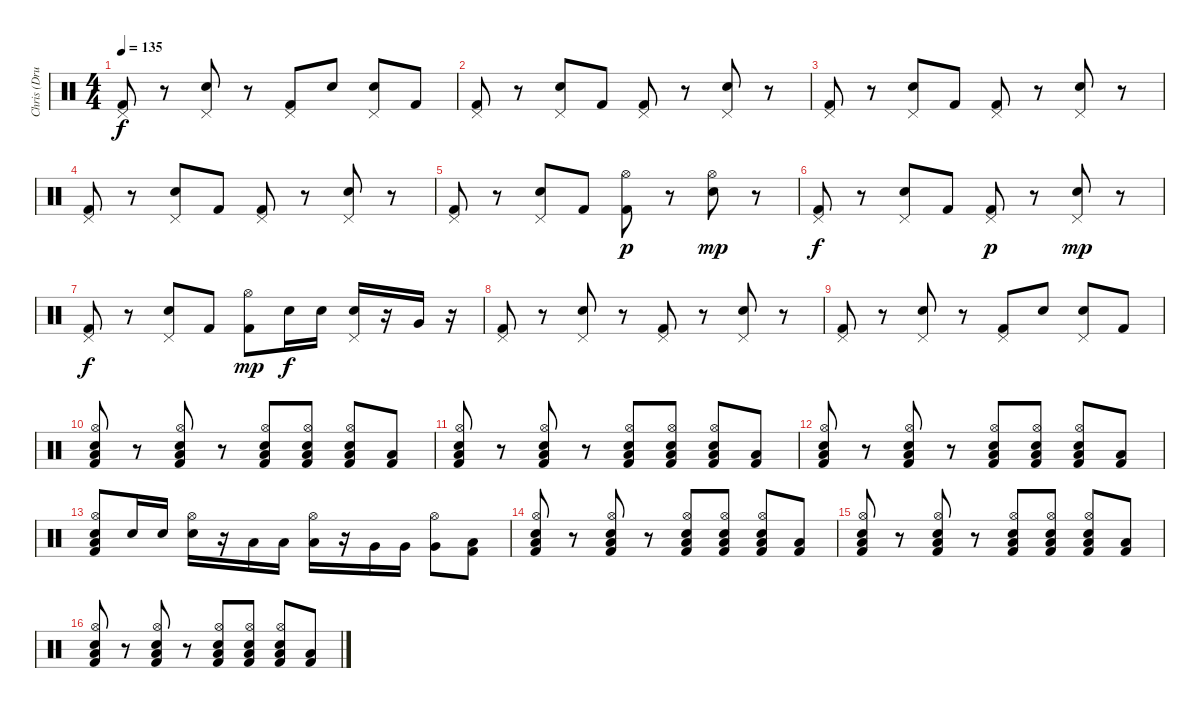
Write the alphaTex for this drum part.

\track ("Chris (Drums)" "Chris (Dru") {instrument percussion}
\staff {score}
\articulation defaults
\ts (4 4)
\tempo 135
\clef neutral
\ks c
("Pedal Hi-Hat (hit)" "Kick (hit) 2").8{dy f} r.8 ("Pedal Hi-Hat (hit)" "Snare (hit) 2").8 r.8 ("Pedal Hi-Hat (hit)" "Kick (hit) 2").8 "Snare (hit) 2".8 ("Pedal Hi-Hat (hit)" "Snare (hit) 2").8 "Kick (hit) 2".8 |
("Pedal Hi-Hat (hit)" "Kick (hit) 2").8 r.8 ("Pedal Hi-Hat (hit)" "Snare (hit) 2").8 "Kick (hit) 2".8 ("Pedal Hi-Hat (hit)" "Kick (hit) 2").8 r.8 ("Pedal Hi-Hat (hit)" "Snare (hit) 2").8 r.8 |
("Pedal Hi-Hat (hit)" "Kick (hit) 2").8 r.8 ("Pedal Hi-Hat (hit)" "Snare (hit) 2").8 "Kick (hit) 2".8 ("Pedal Hi-Hat (hit)" "Kick (hit) 2").8 r.8 ("Pedal Hi-Hat (hit)" "Snare (hit) 2").8 r.8 |
("Pedal Hi-Hat (hit)" "Kick (hit) 2").8 r.8 ("Pedal Hi-Hat (hit)" "Snare (hit) 2").8 "Kick (hit) 2".8 ("Pedal Hi-Hat (hit)" "Kick (hit) 2").8 r.8 ("Pedal Hi-Hat (hit)" "Snare (hit) 2").8 r.8 |
("Pedal Hi-Hat (hit)" "Kick (hit) 2").8 r.8 ("Pedal Hi-Hat (hit)" "Snare (hit) 2").8 "Kick (hit) 2".8 ("Hi-Hat (open)" "Kick (hit) 2").8{dy p} r.8 ("Hi-Hat (open)" "Snare (hit) 2").8{dy mp} r.8 |
("Pedal Hi-Hat (hit)" "Kick (hit) 2").8{dy f} r.8 ("Pedal Hi-Hat (hit)" "Snare (hit) 2").8 "Kick (hit) 2".8 ("Pedal Hi-Hat (hit)" "Kick (hit) 2").8{dy p} r.8 ("Pedal Hi-Hat (hit)" "Snare (hit) 2").8{dy mp} r.8 |
("Pedal Hi-Hat (hit)" "Kick (hit) 2").8{dy f} r.8 ("Pedal Hi-Hat (hit)" "Snare (hit) 2").8 "Kick (hit) 2".8 ("Hi-Hat (open)" "Kick (hit) 2").8{dy mp} "Snare (hit) 2".16{dy f} "Snare (hit) 2".16 ("Pedal Hi-Hat (hit)" "Snare (hit) 2").16 r.16 "Very Low Tom (hit)".16 r.16 |
("Pedal Hi-Hat (hit)" "Kick (hit) 2").8 r.8 ("Pedal Hi-Hat (hit)" "Snare (hit) 2").8 r.8 ("Pedal Hi-Hat (hit)" "Kick (hit) 2").8 r.8 ("Pedal Hi-Hat (hit)" "Snare (hit) 2").8 r.8 |
("Pedal Hi-Hat (hit)" "Kick (hit) 2").8 r.8 ("Pedal Hi-Hat (hit)" "Snare (hit) 2").8 r.8 ("Pedal Hi-Hat (hit)" "Kick (hit) 2").8 "Snare (hit) 2".8 ("Pedal Hi-Hat (hit)" "Snare (hit) 2").8 "Kick (hit) 2".8 |
("Hi-Hat (open)" "Low Floor Tom (hit)" "Snare (hit) 2" "Kick (hit) 2").8 r.8 ("Hi-Hat (open)" "Low Floor Tom (hit)" "Snare (hit) 2" "Kick (hit) 2").8 r.8 ("Hi-Hat (open)" "Low Floor Tom (hit)" "Snare (hit) 2" "Kick (hit) 2").8 ("Hi-Hat (open)" "Low Floor Tom (hit)" "Snare (hit) 2" "Kick (hit) 2").8 ("Hi-Hat (open)" "Low Floor Tom (hit)" "Snare (hit) 2" "Kick (hit) 2").8 ("Low Floor Tom (hit)" "Kick (hit) 2").8 |
("Hi-Hat (open)" "Low Floor Tom (hit)" "Snare (hit) 2" "Kick (hit) 2").8 r.8 ("Hi-Hat (open)" "Low Floor Tom (hit)" "Snare (hit) 2" "Kick (hit) 2").8 r.8 ("Hi-Hat (open)" "Low Floor Tom (hit)" "Snare (hit) 2" "Kick (hit) 2").8 ("Hi-Hat (open)" "Low Floor Tom (hit)" "Snare (hit) 2" "Kick (hit) 2").8 ("Hi-Hat (open)" "Low Floor Tom (hit)" "Snare (hit) 2" "Kick (hit) 2").8 ("Low Floor Tom (hit)" "Kick (hit) 2").8 |
("Hi-Hat (open)" "Low Floor Tom (hit)" "Snare (hit) 2" "Kick (hit) 2").8 r.8 ("Hi-Hat (open)" "Low Floor Tom (hit)" "Snare (hit) 2" "Kick (hit) 2").8 r.8 ("Hi-Hat (open)" "Low Floor Tom (hit)" "Snare (hit) 2" "Kick (hit) 2").8 ("Hi-Hat (open)" "Low Floor Tom (hit)" "Snare (hit) 2" "Kick (hit) 2").8 ("Hi-Hat (open)" "Low Floor Tom (hit)" "Snare (hit) 2" "Kick (hit) 2").8 ("Low Floor Tom (hit)" "Kick (hit) 2").8 |
("Hi-Hat (open)" "Snare (hit) 2" "Low Floor Tom (hit)" "Kick (hit) 2").8 "Snare (hit) 2".16 "Snare (hit) 2".16 ("Hi-Hat (open)" "Snare (hit) 2").16 r.16 "Low Tom (hit)".16 "Low Tom (hit)".16 ("Hi-Hat (open)" "Low Tom (hit)").16 r.16 "Very Low Tom (hit)".16 "Very Low Tom (hit)".16 ("Hi-Hat (open)" "Very Low Tom (hit)").8 ("Low Floor Tom (hit)" "Kick (hit) 2").8 |
("Hi-Hat (open)" "Low Floor Tom (hit)" "Snare (hit) 2" "Kick (hit) 2").8 r.8 ("Hi-Hat (open)" "Low Floor Tom (hit)" "Snare (hit) 2" "Kick (hit) 2").8 r.8 ("Hi-Hat (open)" "Low Floor Tom (hit)" "Snare (hit) 2" "Kick (hit) 2").8 ("Hi-Hat (open)" "Low Floor Tom (hit)" "Snare (hit) 2" "Kick (hit) 2").8 ("Hi-Hat (open)" "Low Floor Tom (hit)" "Snare (hit) 2" "Kick (hit) 2").8 ("Low Floor Tom (hit)" "Kick (hit) 2").8 |
("Hi-Hat (open)" "Low Floor Tom (hit)" "Snare (hit) 2" "Kick (hit) 2").8 r.8 ("Hi-Hat (open)" "Low Floor Tom (hit)" "Snare (hit) 2" "Kick (hit) 2").8 r.8 ("Hi-Hat (open)" "Low Floor Tom (hit)" "Snare (hit) 2" "Kick (hit) 2").8 ("Hi-Hat (open)" "Low Floor Tom (hit)" "Snare (hit) 2" "Kick (hit) 2").8 ("Hi-Hat (open)" "Low Floor Tom (hit)" "Snare (hit) 2" "Kick (hit) 2").8 ("Low Floor Tom (hit)" "Kick (hit) 2").8 |
("Hi-Hat (open)" "Low Floor Tom (hit)" "Snare (hit) 2" "Kick (hit) 2").8 r.8 ("Hi-Hat (open)" "Low Floor Tom (hit)" "Snare (hit) 2" "Kick (hit) 2").8 r.8 ("Hi-Hat (open)" "Low Floor Tom (hit)" "Snare (hit) 2" "Kick (hit) 2").8 ("Hi-Hat (open)" "Low Floor Tom (hit)" "Snare (hit) 2" "Kick (hit) 2").8 ("Hi-Hat (open)" "Low Floor Tom (hit)" "Snare (hit) 2" "Kick (hit) 2").8 ("Low Floor Tom (hit)" "Kick (hit) 2").8
